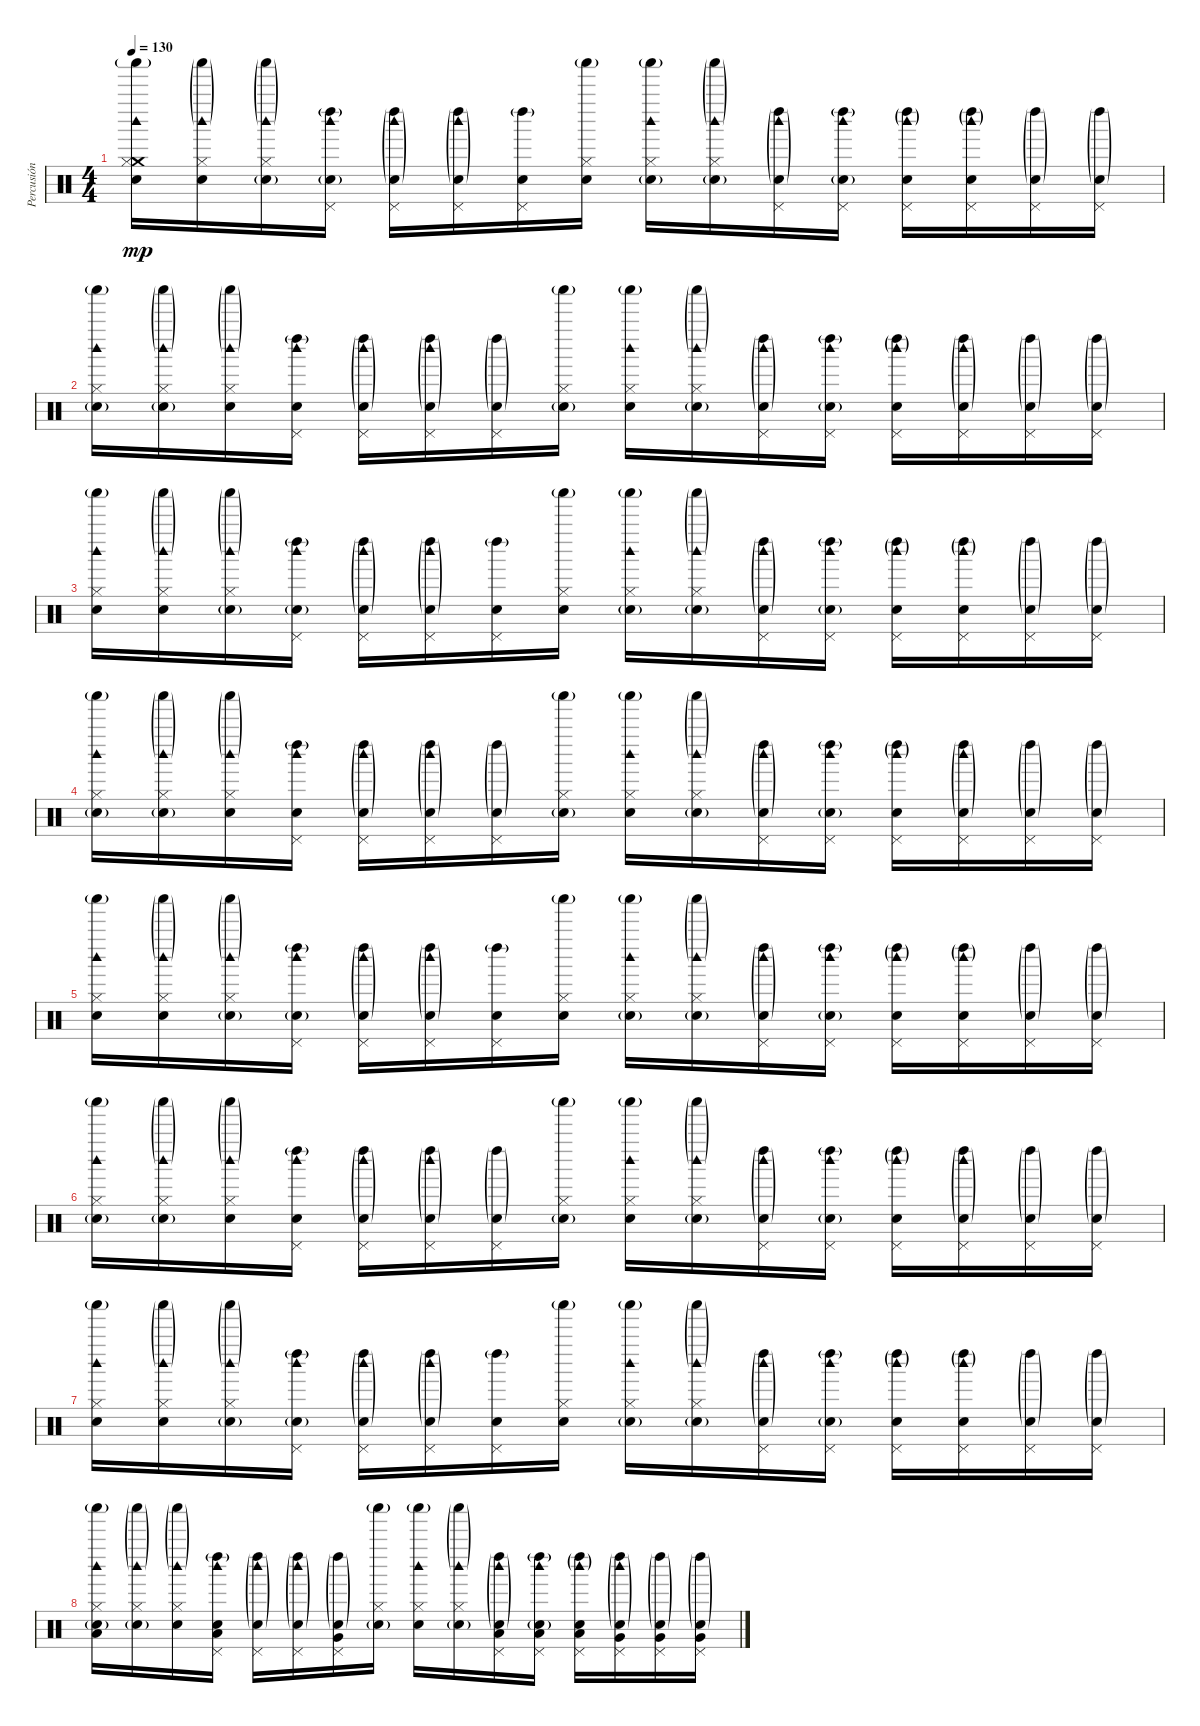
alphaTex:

\track ("Percusión" "Percusión") {instrument percussion}
\staff {score}
\articulation defaults
\ts (4 4)
\tempo 130
\clef neutral
\ks c
("Shaker (hit)"{g} "Crash medium (hit)" "Hi-Hat (closed)" "Woodblock high (hit)" "Electric Snare (hit)").16{dy mp} ("Shaker (hit)"{g} "Hi-Hat (closed)" "Woodblock high (hit)"{g} "Electric Snare (hit)").16 ("Shaker (hit)"{g} "Hi-Hat (closed)" "Woodblock high (hit)"{g} "Electric Snare (hit)"{g}).16 ("Left Maraca (hit)"{g} "Pedal Hi-Hat (hit)" "Woodblock high (hit)" "Electric Snare (hit)"{g}).16 ("Left Maraca (hit)"{g} "Pedal Hi-Hat (hit)" "Woodblock high (hit)"{g} "Electric Snare (hit)"{g}).16 ("Left Maraca (hit)"{g} "Pedal Hi-Hat (hit)" "Woodblock high (hit)"{g} "Electric Snare (hit)"{g}).16 ("Left Maraca (hit)"{g} "Pedal Hi-Hat (hit)" "Electric Snare (hit)").16 ("Shaker (hit)"{g} "Hi-Hat (closed)" "Electric Snare (hit)").16 ("Shaker (hit)"{g} "Hi-Hat (closed)" "Woodblock high (hit)" "Electric Snare (hit)"{g}).16 ("Shaker (hit)"{g} "Hi-Hat (closed)" "Woodblock high (hit)"{g} "Electric Snare (hit)"{g}).16 ("Left Maraca (hit)"{g} "Pedal Hi-Hat (hit)" "Woodblock high (hit)"{g} "Electric Snare (hit)"{g}).16 ("Left Maraca (hit)"{g} "Pedal Hi-Hat (hit)" "Woodblock high (hit)" "Electric Snare (hit)"{g}).16 ("Left Maraca (hit)"{g} "Pedal Hi-Hat (hit)" "Woodblock high (hit)"{g} "Electric Snare (hit)").16 ("Left Maraca (hit)"{g} "Pedal Hi-Hat (hit)" "Woodblock high (hit)"{g} "Electric Snare (hit)").16 ("Left Maraca (hit)"{g} "Pedal Hi-Hat (hit)" "Electric Snare (hit)"{g}).16 ("Left Maraca (hit)"{g} "Pedal Hi-Hat (hit)" "Electric Snare (hit)"{g}).16 |
("Shaker (hit)"{g} "Hi-Hat (closed)" "Woodblock high (hit)" "Electric Snare (hit)"{g}).16 ("Shaker (hit)"{g} "Hi-Hat (closed)" "Woodblock high (hit)"{g} "Electric Snare (hit)"{g}).16 ("Shaker (hit)"{g} "Hi-Hat (closed)" "Woodblock high (hit)"{g} "Electric Snare (hit)").16 ("Left Maraca (hit)"{g} "Pedal Hi-Hat (hit)" "Woodblock high (hit)" "Electric Snare (hit)").16 ("Left Maraca (hit)"{g} "Pedal Hi-Hat (hit)" "Woodblock high (hit)"{g} "Electric Snare (hit)"{g}).16 ("Left Maraca (hit)"{g} "Pedal Hi-Hat (hit)" "Woodblock high (hit)"{g} "Electric Snare (hit)"{g}).16 ("Left Maraca (hit)"{g} "Pedal Hi-Hat (hit)" "Electric Snare (hit)"{g}).16 ("Shaker (hit)"{g} "Hi-Hat (closed)" "Electric Snare (hit)"{g}).16 ("Shaker (hit)"{g} "Hi-Hat (closed)" "Woodblock high (hit)" "Electric Snare (hit)").16 ("Shaker (hit)"{g} "Hi-Hat (closed)" "Woodblock high (hit)"{g} "Electric Snare (hit)"{g}).16 ("Left Maraca (hit)"{g} "Pedal Hi-Hat (hit)" "Woodblock high (hit)"{g} "Electric Snare (hit)"{g}).16 ("Left Maraca (hit)"{g} "Pedal Hi-Hat (hit)" "Woodblock high (hit)" "Electric Snare (hit)"{g}).16 ("Left Maraca (hit)"{g} "Pedal Hi-Hat (hit)" "Woodblock high (hit)"{g} "Electric Snare (hit)").16 ("Left Maraca (hit)"{g} "Pedal Hi-Hat (hit)" "Woodblock high (hit)"{g} "Electric Snare (hit)"{g}).16 ("Left Maraca (hit)"{g} "Pedal Hi-Hat (hit)" "Electric Snare (hit)"{g}).16 ("Left Maraca (hit)"{g} "Pedal Hi-Hat (hit)" "Electric Snare (hit)"{g}).16 |
("Shaker (hit)"{g} "Hi-Hat (closed)" "Woodblock high (hit)" "Electric Snare (hit)").16 ("Shaker (hit)"{g} "Hi-Hat (closed)" "Woodblock high (hit)"{g} "Electric Snare (hit)").16 ("Shaker (hit)"{g} "Hi-Hat (closed)" "Woodblock high (hit)"{g} "Electric Snare (hit)"{g}).16 ("Left Maraca (hit)"{g} "Pedal Hi-Hat (hit)" "Woodblock high (hit)" "Electric Snare (hit)"{g}).16 ("Left Maraca (hit)"{g} "Pedal Hi-Hat (hit)" "Woodblock high (hit)"{g} "Electric Snare (hit)"{g}).16 ("Left Maraca (hit)"{g} "Pedal Hi-Hat (hit)" "Woodblock high (hit)"{g} "Electric Snare (hit)"{g}).16 ("Left Maraca (hit)"{g} "Pedal Hi-Hat (hit)" "Electric Snare (hit)").16 ("Shaker (hit)"{g} "Hi-Hat (closed)" "Electric Snare (hit)").16 ("Shaker (hit)"{g} "Hi-Hat (closed)" "Woodblock high (hit)" "Electric Snare (hit)"{g}).16 ("Shaker (hit)"{g} "Hi-Hat (closed)" "Woodblock high (hit)"{g} "Electric Snare (hit)"{g}).16 ("Left Maraca (hit)"{g} "Pedal Hi-Hat (hit)" "Woodblock high (hit)"{g} "Electric Snare (hit)"{g}).16 ("Left Maraca (hit)"{g} "Pedal Hi-Hat (hit)" "Woodblock high (hit)" "Electric Snare (hit)"{g}).16 ("Left Maraca (hit)"{g} "Pedal Hi-Hat (hit)" "Woodblock high (hit)"{g} "Electric Snare (hit)").16 ("Left Maraca (hit)"{g} "Pedal Hi-Hat (hit)" "Woodblock high (hit)"{g} "Electric Snare (hit)").16 ("Left Maraca (hit)"{g} "Pedal Hi-Hat (hit)" "Electric Snare (hit)"{g}).16 ("Left Maraca (hit)"{g} "Pedal Hi-Hat (hit)" "Electric Snare (hit)"{g}).16 |
("Shaker (hit)"{g} "Hi-Hat (closed)" "Woodblock high (hit)" "Electric Snare (hit)"{g}).16 ("Shaker (hit)"{g} "Hi-Hat (closed)" "Woodblock high (hit)"{g} "Electric Snare (hit)"{g}).16 ("Shaker (hit)"{g} "Hi-Hat (closed)" "Woodblock high (hit)"{g} "Electric Snare (hit)").16 ("Left Maraca (hit)"{g} "Pedal Hi-Hat (hit)" "Woodblock high (hit)" "Electric Snare (hit)").16 ("Left Maraca (hit)"{g} "Pedal Hi-Hat (hit)" "Woodblock high (hit)"{g} "Electric Snare (hit)"{g}).16 ("Left Maraca (hit)"{g} "Pedal Hi-Hat (hit)" "Woodblock high (hit)"{g} "Electric Snare (hit)"{g}).16 ("Left Maraca (hit)"{g} "Pedal Hi-Hat (hit)" "Electric Snare (hit)"{g}).16 ("Shaker (hit)"{g} "Hi-Hat (closed)" "Electric Snare (hit)"{g}).16 ("Shaker (hit)"{g} "Hi-Hat (closed)" "Woodblock high (hit)" "Electric Snare (hit)").16 ("Shaker (hit)"{g} "Hi-Hat (closed)" "Woodblock high (hit)"{g} "Electric Snare (hit)"{g}).16 ("Left Maraca (hit)"{g} "Pedal Hi-Hat (hit)" "Woodblock high (hit)"{g} "Electric Snare (hit)"{g}).16 ("Left Maraca (hit)"{g} "Pedal Hi-Hat (hit)" "Woodblock high (hit)" "Electric Snare (hit)"{g}).16 ("Left Maraca (hit)"{g} "Pedal Hi-Hat (hit)" "Woodblock high (hit)"{g} "Electric Snare (hit)").16 ("Left Maraca (hit)"{g} "Pedal Hi-Hat (hit)" "Woodblock high (hit)"{g} "Electric Snare (hit)"{g}).16 ("Left Maraca (hit)"{g} "Pedal Hi-Hat (hit)" "Electric Snare (hit)"{g}).16 ("Left Maraca (hit)"{g} "Pedal Hi-Hat (hit)" "Electric Snare (hit)"{g}).16 |
("Shaker (hit)"{g} "Hi-Hat (closed)" "Woodblock high (hit)" "Electric Snare (hit)").16 ("Shaker (hit)"{g} "Hi-Hat (closed)" "Woodblock high (hit)"{g} "Electric Snare (hit)").16 ("Shaker (hit)"{g} "Hi-Hat (closed)" "Woodblock high (hit)"{g} "Electric Snare (hit)"{g}).16 ("Left Maraca (hit)"{g} "Pedal Hi-Hat (hit)" "Woodblock high (hit)" "Electric Snare (hit)"{g}).16 ("Left Maraca (hit)"{g} "Pedal Hi-Hat (hit)" "Woodblock high (hit)"{g} "Electric Snare (hit)"{g}).16 ("Left Maraca (hit)"{g} "Pedal Hi-Hat (hit)" "Woodblock high (hit)"{g} "Electric Snare (hit)"{g}).16 ("Left Maraca (hit)"{g} "Pedal Hi-Hat (hit)" "Electric Snare (hit)").16 ("Shaker (hit)"{g} "Hi-Hat (closed)" "Electric Snare (hit)").16 ("Shaker (hit)"{g} "Hi-Hat (closed)" "Woodblock high (hit)" "Electric Snare (hit)"{g}).16 ("Shaker (hit)"{g} "Hi-Hat (closed)" "Woodblock high (hit)"{g} "Electric Snare (hit)"{g}).16 ("Left Maraca (hit)"{g} "Pedal Hi-Hat (hit)" "Woodblock high (hit)"{g} "Electric Snare (hit)"{g}).16 ("Left Maraca (hit)"{g} "Pedal Hi-Hat (hit)" "Woodblock high (hit)" "Electric Snare (hit)"{g}).16 ("Left Maraca (hit)"{g} "Pedal Hi-Hat (hit)" "Woodblock high (hit)"{g} "Electric Snare (hit)").16 ("Left Maraca (hit)"{g} "Pedal Hi-Hat (hit)" "Woodblock high (hit)"{g} "Electric Snare (hit)").16 ("Left Maraca (hit)"{g} "Pedal Hi-Hat (hit)" "Electric Snare (hit)"{g}).16 ("Left Maraca (hit)"{g} "Pedal Hi-Hat (hit)" "Electric Snare (hit)"{g}).16 |
("Shaker (hit)"{g} "Hi-Hat (closed)" "Woodblock high (hit)" "Electric Snare (hit)"{g}).16 ("Shaker (hit)"{g} "Hi-Hat (closed)" "Woodblock high (hit)"{g} "Electric Snare (hit)"{g}).16 ("Shaker (hit)"{g} "Hi-Hat (closed)" "Woodblock high (hit)"{g} "Electric Snare (hit)").16 ("Left Maraca (hit)"{g} "Pedal Hi-Hat (hit)" "Woodblock high (hit)" "Electric Snare (hit)").16 ("Left Maraca (hit)"{g} "Pedal Hi-Hat (hit)" "Woodblock high (hit)"{g} "Electric Snare (hit)"{g}).16 ("Left Maraca (hit)"{g} "Pedal Hi-Hat (hit)" "Woodblock high (hit)"{g} "Electric Snare (hit)"{g}).16 ("Left Maraca (hit)"{g} "Pedal Hi-Hat (hit)" "Electric Snare (hit)"{g}).16 ("Shaker (hit)"{g} "Hi-Hat (closed)" "Electric Snare (hit)"{g}).16 ("Shaker (hit)"{g} "Hi-Hat (closed)" "Woodblock high (hit)" "Electric Snare (hit)").16 ("Shaker (hit)"{g} "Hi-Hat (closed)" "Woodblock high (hit)"{g} "Electric Snare (hit)"{g}).16 ("Left Maraca (hit)"{g} "Pedal Hi-Hat (hit)" "Woodblock high (hit)"{g} "Electric Snare (hit)"{g}).16 ("Left Maraca (hit)"{g} "Pedal Hi-Hat (hit)" "Woodblock high (hit)" "Electric Snare (hit)"{g}).16 ("Left Maraca (hit)"{g} "Pedal Hi-Hat (hit)" "Woodblock high (hit)"{g} "Electric Snare (hit)").16 ("Left Maraca (hit)"{g} "Pedal Hi-Hat (hit)" "Woodblock high (hit)"{g} "Electric Snare (hit)"{g}).16 ("Left Maraca (hit)"{g} "Pedal Hi-Hat (hit)" "Electric Snare (hit)"{g}).16 ("Left Maraca (hit)"{g} "Pedal Hi-Hat (hit)" "Electric Snare (hit)"{g}).16 |
("Shaker (hit)"{g} "Hi-Hat (closed)" "Woodblock high (hit)" "Electric Snare (hit)").16 ("Shaker (hit)"{g} "Hi-Hat (closed)" "Woodblock high (hit)"{g} "Electric Snare (hit)").16 ("Shaker (hit)"{g} "Hi-Hat (closed)" "Woodblock high (hit)"{g} "Electric Snare (hit)"{g}).16 ("Left Maraca (hit)"{g} "Pedal Hi-Hat (hit)" "Woodblock high (hit)" "Electric Snare (hit)"{g}).16 ("Left Maraca (hit)"{g} "Pedal Hi-Hat (hit)" "Woodblock high (hit)"{g} "Electric Snare (hit)"{g}).16 ("Left Maraca (hit)"{g} "Pedal Hi-Hat (hit)" "Woodblock high (hit)"{g} "Electric Snare (hit)"{g}).16 ("Left Maraca (hit)"{g} "Pedal Hi-Hat (hit)" "Electric Snare (hit)").16 ("Shaker (hit)"{g} "Hi-Hat (closed)" "Electric Snare (hit)").16 ("Shaker (hit)"{g} "Hi-Hat (closed)" "Woodblock high (hit)" "Electric Snare (hit)"{g}).16 ("Shaker (hit)"{g} "Hi-Hat (closed)" "Woodblock high (hit)"{g} "Electric Snare (hit)"{g}).16 ("Left Maraca (hit)"{g} "Pedal Hi-Hat (hit)" "Woodblock high (hit)"{g} "Electric Snare (hit)"{g}).16 ("Left Maraca (hit)"{g} "Pedal Hi-Hat (hit)" "Woodblock high (hit)" "Electric Snare (hit)"{g}).16 ("Left Maraca (hit)"{g} "Pedal Hi-Hat (hit)" "Woodblock high (hit)"{g} "Electric Snare (hit)").16 ("Left Maraca (hit)"{g} "Pedal Hi-Hat (hit)" "Woodblock high (hit)"{g} "Electric Snare (hit)").16 ("Left Maraca (hit)"{g} "Pedal Hi-Hat (hit)" "Electric Snare (hit)"{g}).16 ("Left Maraca (hit)"{g} "Pedal Hi-Hat (hit)" "Electric Snare (hit)"{g}).16 |
("Shaker (hit)"{g} "Low Tom (hit)" "Hi-Hat (closed)" "Woodblock high (hit)" "Electric Snare (hit)"{g}).16 ("Shaker (hit)"{g} "Hi-Hat (closed)" "Woodblock high (hit)"{g} "Electric Snare (hit)"{g}).16 ("Shaker (hit)"{g} "Hi-Hat (closed)" "Woodblock high (hit)"{g} "Electric Snare (hit)").16 ("Left Maraca (hit)"{g} "Low Tom (hit)" "Pedal Hi-Hat (hit)" "Woodblock high (hit)" "Electric Snare (hit)").16 ("Left Maraca (hit)"{g} "Pedal Hi-Hat (hit)" "Woodblock high (hit)"{g} "Electric Snare (hit)"{g}).16 ("Left Maraca (hit)"{g} "Pedal Hi-Hat (hit)" "Woodblock high (hit)"{g} "Electric Snare (hit)"{g}).16 ("Left Maraca (hit)"{g} "Very Low Tom (hit)" "Pedal Hi-Hat (hit)" "Electric Snare (hit)"{g}).16 ("Shaker (hit)"{g} "Hi-Hat (closed)" "Electric Snare (hit)"{g}).16 ("Shaker (hit)"{g} "Hi-Hat (closed)" "Woodblock high (hit)" "Electric Snare (hit)").16 ("Shaker (hit)"{g} "Hi-Hat (closed)" "Woodblock high (hit)"{g} "Electric Snare (hit)"{g}).16 ("Left Maraca (hit)"{g} "Low Tom (hit)" "Pedal Hi-Hat (hit)" "Woodblock high (hit)"{g} "Electric Snare (hit)"{g}).16 ("Left Maraca (hit)"{g} "Low Tom (hit)" "Pedal Hi-Hat (hit)" "Woodblock high (hit)" "Electric Snare (hit)"{g}).16 ("Left Maraca (hit)"{g} "Low Tom (hit)" "Pedal Hi-Hat (hit)" "Woodblock high (hit)"{g} "Electric Snare (hit)").16 ("Left Maraca (hit)"{g} "Very Low Tom (hit)" "Pedal Hi-Hat (hit)" "Woodblock high (hit)"{g} "Electric Snare (hit)"{g}).16 ("Left Maraca (hit)"{g} "Very Low Tom (hit)" "Pedal Hi-Hat (hit)" "Electric Snare (hit)"{g}).16 ("Left Maraca (hit)"{g} "Very Low Tom (hit)" "Pedal Hi-Hat (hit)" "Electric Snare (hit)"{g}).16
